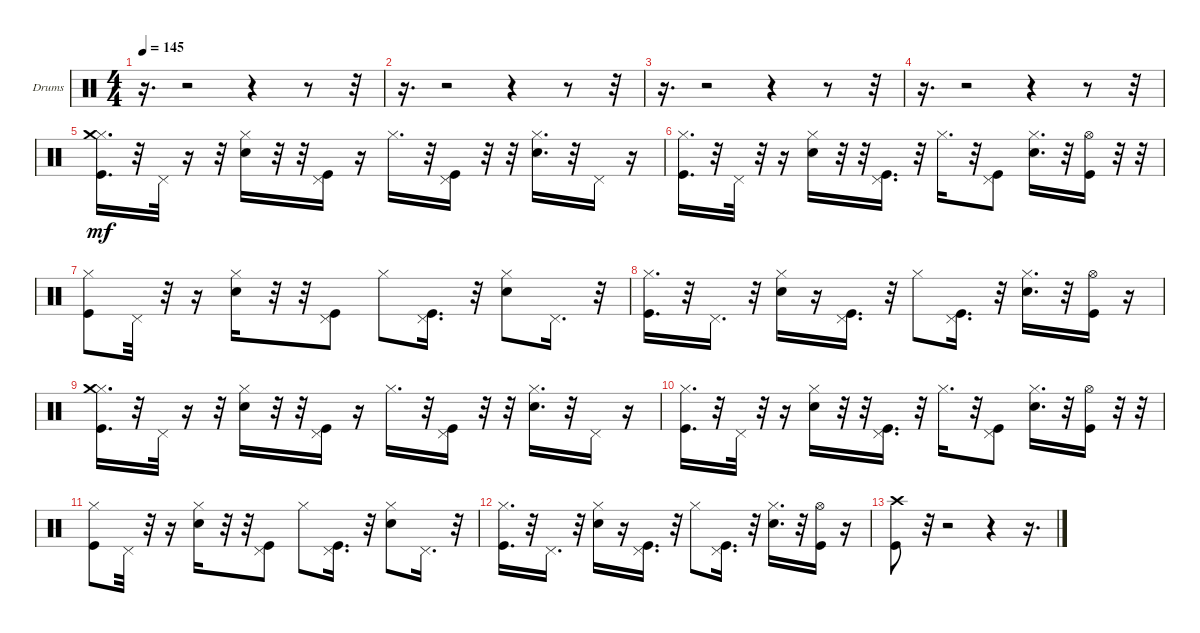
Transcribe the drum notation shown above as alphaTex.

\defaultSystemsLayout 4
\bracketExtendMode groupsimilarinstruments
\firstSystemTrackNameOrientation horizontal
\otherSystemsTrackNameOrientation horizontal
\track ("Drumkit" "Drums") {instrument percussion}
\staff {score}
\articulation defaults
\ts (4 4)
\tempo 145
\clef neutral
\scale
0.333333
\ks c
r.16{d dy mf} r.2 r.4 r.8 r.32 |
\scale
0.333333 r.16{d} r.2 r.4 r.8 r.32 |
\scale
0.333333 r.16{d} r.2 r.4 r.8 r.32 |
\scale
0.333333 r.16{d} r.2 r.4 r.8 r.32 |
\scale
0.333333 ("Kick (hit)" "Hi-Hat (closed)" "Crash medium (hit)").16{d} r.32 "Pedal Hi-Hat (hit)".32 r.16 r.32 ("Snare (hit) 2" "Hi-Hat (closed)").16 r.32 r.32 ("Pedal Hi-Hat (hit)" "Kick (hit)").16 r.16 "Hi-Hat (closed)".16{d} r.32 ("Pedal Hi-Hat (hit)" "Kick (hit)").16 r.32 r.32 ("Snare (hit) 2" "Hi-Hat (closed)").16{d} r.32 "Pedal Hi-Hat (hit)".16 r.16 |
\scale
0.333333 ("Hi-Hat (closed)" "Kick (hit)").16{d} r.32 "Pedal Hi-Hat (hit)".32 r.32 r.16 ("Snare (hit) 2" "Hi-Hat (closed)").16 r.32 r.32 ("Pedal Hi-Hat (hit)" "Kick (hit)").16{d} r.32 "Hi-Hat (closed)".16{d} r.32 ("Pedal Hi-Hat (hit)" "Kick (hit)").8 ("Snare (hit) 2" "Hi-Hat (closed)").16{d} r.32 ("Hi-Hat (open)" "Kick (hit)").16 r.32 r.32 |
\scale
0.333333 ("Kick (hit)" "Hi-Hat (closed)").8 "Pedal Hi-Hat (hit)".32 r.32 r.16 ("Snare (hit) 2" "Hi-Hat (closed)").16 r.32 r.32 ("Pedal Hi-Hat (hit)" "Kick (hit)").8 "Hi-Hat (closed)".8 ("Kick (hit)" "Pedal Hi-Hat (hit)").16{d} r.32 ("Snare (hit) 2" "Hi-Hat (closed)").8 "Pedal Hi-Hat (hit)".16{d} r.32 |
\scale
0.333333 ("Hi-Hat (closed)" "Kick (hit)").16{d} r.32 "Pedal Hi-Hat (hit)".16{d} r.32 ("Snare (hit) 2" "Hi-Hat (closed)").16 r.16 ("Pedal Hi-Hat (hit)" "Kick (hit)").16{d} r.32 "Hi-Hat (closed)".8 ("Pedal Hi-Hat (hit)" "Kick (hit)").16{d} r.32 ("Snare (hit) 2" "Hi-Hat (closed)").16{d} r.32 ("Hi-Hat (open)" "Kick (hit)").16 r.16 |
\scale
0.333333 ("Kick (hit)" "Hi-Hat (closed)" "Crash medium (hit)").16{d} r.32 "Pedal Hi-Hat (hit)".32 r.16 r.32 ("Snare (hit) 2" "Hi-Hat (closed)").16 r.32 r.32 ("Pedal Hi-Hat (hit)" "Kick (hit)").16 r.16 "Hi-Hat (closed)".16{d} r.32 ("Pedal Hi-Hat (hit)" "Kick (hit)").16 r.32 r.32 ("Snare (hit) 2" "Hi-Hat (closed)").16{d} r.32 "Pedal Hi-Hat (hit)".16 r.16 |
\scale
0.333333 ("Hi-Hat (closed)" "Kick (hit)").16{d} r.32 "Pedal Hi-Hat (hit)".32 r.32 r.16 ("Snare (hit) 2" "Hi-Hat (closed)").16 r.32 r.32 ("Pedal Hi-Hat (hit)" "Kick (hit)").16{d} r.32 "Hi-Hat (closed)".16{d} r.32 ("Pedal Hi-Hat (hit)" "Kick (hit)").8 ("Snare (hit) 2" "Hi-Hat (closed)").16{d} r.32 ("Hi-Hat (open)" "Kick (hit)").16 r.32 r.32 |
("Kick (hit)" "Hi-Hat (closed)").8 "Pedal Hi-Hat (hit)".32 r.32 r.16 ("Snare (hit) 2" "Hi-Hat (closed)").16 r.32 r.32 ("Pedal Hi-Hat (hit)" "Kick (hit)").8 "Hi-Hat (closed)".8 ("Kick (hit)" "Pedal Hi-Hat (hit)").16{d} r.32 ("Snare (hit) 2" "Hi-Hat (closed)").8 "Pedal Hi-Hat (hit)".16{d} r.32 |
("Hi-Hat (closed)" "Kick (hit)").16{d} r.32 "Pedal Hi-Hat (hit)".16{d} r.32 ("Snare (hit) 2" "Hi-Hat (closed)").16 r.16 ("Pedal Hi-Hat (hit)" "Kick (hit)").16{d} r.32 "Hi-Hat (closed)".8 ("Pedal Hi-Hat (hit)" "Kick (hit)").16{d} r.32 ("Snare (hit) 2" "Hi-Hat (closed)").16{d} r.32 ("Hi-Hat (open)" "Kick (hit)").16 r.16 |
("Crash high (hit)" "Kick (hit)").8 r.32 r.2 r.4 r.16{d}
